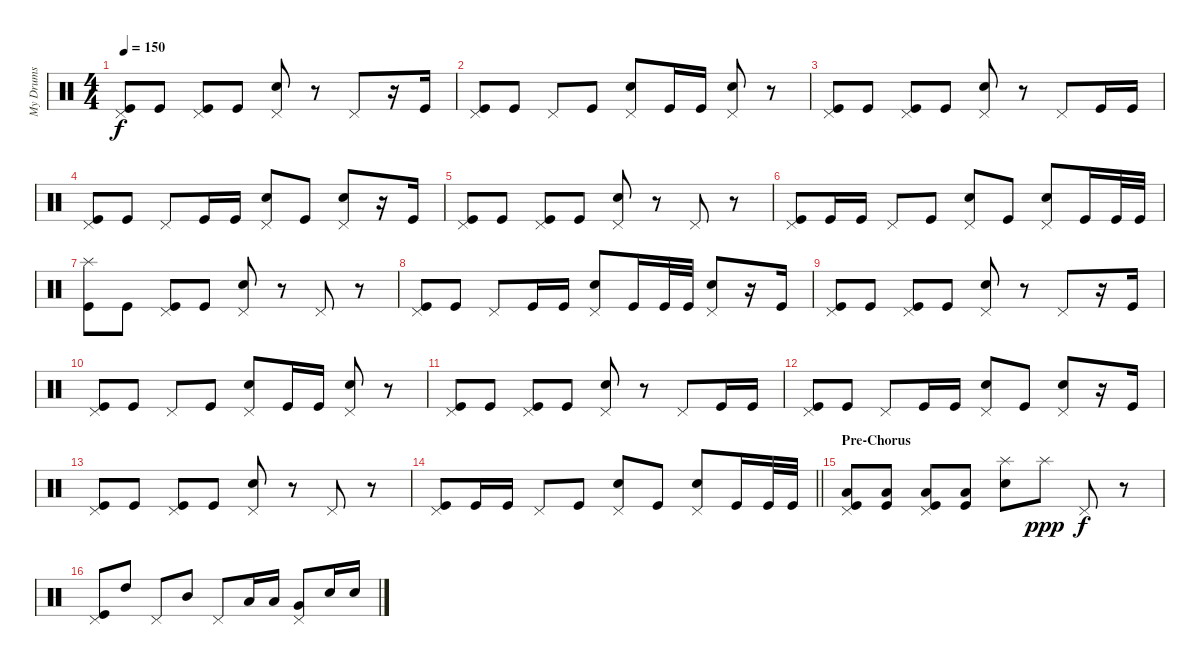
\track ("My Drums" "My Drums") {instrument percussion}
\staff {score}
\articulation defaults
\ts (4 4)
\tempo 150
\clef neutral
\ks c
("Pedal Hi-Hat (hit)" "Kick (hit)").8{dy f} "Kick (hit)".8 ("Pedal Hi-Hat (hit)" "Kick (hit)").8 "Kick (hit)".8 ("Pedal Hi-Hat (hit)" "Snare (hit) 2").8 r.8 "Pedal Hi-Hat (hit)".8 r.16 "Kick (hit)".16 |
("Pedal Hi-Hat (hit)" "Kick (hit)").8 "Kick (hit)".8 "Pedal Hi-Hat (hit)".8 "Kick (hit)".8 ("Pedal Hi-Hat (hit)" "Snare (hit) 2").8 "Kick (hit)".16 "Kick (hit)".16 ("Pedal Hi-Hat (hit)" "Snare (hit) 2").8 r.8 |
("Pedal Hi-Hat (hit)" "Kick (hit)").8 "Kick (hit)".8 ("Pedal Hi-Hat (hit)" "Kick (hit)").8 "Kick (hit)".8 ("Pedal Hi-Hat (hit)" "Snare (hit) 2").8 r.8 "Pedal Hi-Hat (hit)".8 "Kick (hit)".16 "Kick (hit)".16 |
("Pedal Hi-Hat (hit)" "Kick (hit)").8 "Kick (hit)".8 "Pedal Hi-Hat (hit)".8 "Kick (hit)".16 "Kick (hit)".16 ("Pedal Hi-Hat (hit)" "Snare (hit) 2").8 "Kick (hit)".8 ("Pedal Hi-Hat (hit)" "Snare (hit) 2").8 r.16 "Kick (hit)".16 |
("Pedal Hi-Hat (hit)" "Kick (hit)").8 "Kick (hit)".8 ("Pedal Hi-Hat (hit)" "Kick (hit)").8 "Kick (hit)".8 ("Pedal Hi-Hat (hit)" "Snare (hit) 2").8 r.8 "Pedal Hi-Hat (hit)".8 r.8 |
("Pedal Hi-Hat (hit)" "Kick (hit)").8 "Kick (hit)".16 "Kick (hit)".16 "Pedal Hi-Hat (hit)".8 "Kick (hit)".8 ("Pedal Hi-Hat (hit)" "Snare (hit) 2").8 "Kick (hit)".8 ("Pedal Hi-Hat (hit)" "Snare (hit) 2").8 "Kick (hit)".16 "Kick (hit)".32 "Kick (hit)".32 |
("Splash (hit)" "Kick (hit)").8 "Kick (hit)".8 ("Pedal Hi-Hat (hit)" "Kick (hit)").8 "Kick (hit)".8 ("Pedal Hi-Hat (hit)" "Snare (hit) 2").8 r.8 "Pedal Hi-Hat (hit)".8 r.8 |
("Pedal Hi-Hat (hit)" "Kick (hit)").8 "Kick (hit)".8 "Pedal Hi-Hat (hit)".8 "Kick (hit)".16 "Kick (hit)".16 ("Pedal Hi-Hat (hit)" "Snare (hit) 2").8 "Kick (hit)".16 "Kick (hit)".32 "Kick (hit)".32 ("Pedal Hi-Hat (hit)" "Snare (hit) 2").8 r.16 "Kick (hit)".16 |
("Pedal Hi-Hat (hit)" "Kick (hit)").8 "Kick (hit)".8 ("Pedal Hi-Hat (hit)" "Kick (hit)").8 "Kick (hit)".8 ("Pedal Hi-Hat (hit)" "Snare (hit) 2").8 r.8 "Pedal Hi-Hat (hit)".8 r.16 "Kick (hit)".16 |
("Pedal Hi-Hat (hit)" "Kick (hit)").8 "Kick (hit)".8 "Pedal Hi-Hat (hit)".8 "Kick (hit)".8 ("Pedal Hi-Hat (hit)" "Snare (hit) 2").8 "Kick (hit)".16 "Kick (hit)".16 ("Pedal Hi-Hat (hit)" "Snare (hit) 2").8 r.8 |
("Pedal Hi-Hat (hit)" "Kick (hit)").8 "Kick (hit)".8 ("Pedal Hi-Hat (hit)" "Kick (hit)").8 "Kick (hit)".8 ("Pedal Hi-Hat (hit)" "Snare (hit) 2").8 r.8 "Pedal Hi-Hat (hit)".8 "Kick (hit)".16 "Kick (hit)".16 |
("Pedal Hi-Hat (hit)" "Kick (hit)").8 "Kick (hit)".8 "Pedal Hi-Hat (hit)".8 "Kick (hit)".16 "Kick (hit)".16 ("Pedal Hi-Hat (hit)" "Snare (hit) 2").8 "Kick (hit)".8 ("Pedal Hi-Hat (hit)" "Snare (hit) 2").8 r.16 "Kick (hit)".16 |
("Pedal Hi-Hat (hit)" "Kick (hit)").8 "Kick (hit)".8 ("Pedal Hi-Hat (hit)" "Kick (hit)").8 "Kick (hit)".8 ("Pedal Hi-Hat (hit)" "Snare (hit) 2").8 r.8 "Pedal Hi-Hat (hit)".8 r.8 |
\barLineRight lightlight
("Pedal Hi-Hat (hit)" "Kick (hit)").8 "Kick (hit)".16 "Kick (hit)".16 "Pedal Hi-Hat (hit)".8 "Kick (hit)".8 ("Pedal Hi-Hat (hit)" "Snare (hit) 2").8 "Kick (hit)".8 ("Pedal Hi-Hat (hit)" "Snare (hit) 2").8 "Kick (hit)".16 "Kick (hit)".32 "Kick (hit)".32 |
\section ("" "Pre-Chorus")
("Pedal Hi-Hat (hit)" "Low Floor Tom (hit)" "Kick (hit)").8 ("Low Floor Tom (hit)" "Kick (hit)").8 ("Pedal Hi-Hat (hit)" "Low Floor Tom (hit)" "Kick (hit)").8 ("Low Floor Tom (hit)" "Kick (hit)").8 ("Splash (hit)" "Snare (hit) 2").8 "Splash (hit)".8{dy ppp} "Pedal Hi-Hat (hit)".8{dy f} r.8 |
("Pedal Hi-Hat (hit)" "Kick (hit)").8 "High Tom (hit)".8 "Pedal Hi-Hat (hit)".8 "Mid Tom (hit)".8 "Pedal Hi-Hat (hit)".8 "Low Tom (hit)".16 "Low Tom (hit)".16 ("Pedal Hi-Hat (hit)" "Very Low Tom (hit)").8 "Snare (hit) 2".16 "Snare (hit) 2".16
